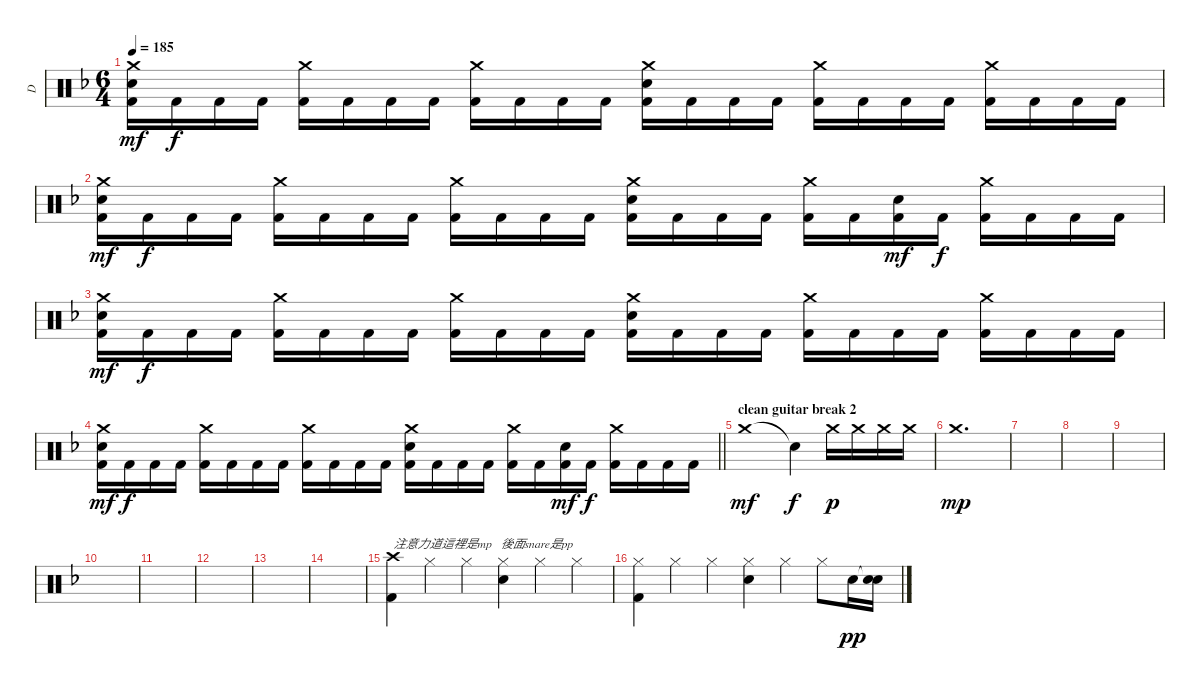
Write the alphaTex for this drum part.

\track ("D" "D") {instrument percussion}
\staff {score}
\articulation defaults
\ts (6 4)
\tempo 185
\clef neutral
\ks dminor
("Crash medium (hit)" "Snare (hit) 2" "Kick (hit) 2").16{dy mf} "Kick (hit) 2".16{dy f} "Kick (hit) 2".16 "Kick (hit) 2".16 ("Crash medium (hit)" "Kick (hit) 2").16 "Kick (hit) 2".16 "Kick (hit) 2".16 "Kick (hit) 2".16 ("Crash medium (hit)" "Kick (hit) 2").16 "Kick (hit) 2".16 "Kick (hit) 2".16 "Kick (hit) 2".16 ("Crash medium (hit)" "Snare (hit) 2" "Kick (hit) 2").16 "Kick (hit) 2".16 "Kick (hit) 2".16 "Kick (hit) 2".16 ("Crash medium (hit)" "Kick (hit) 2").16 "Kick (hit) 2".16 "Kick (hit) 2".16 "Kick (hit) 2".16 ("Crash medium (hit)" "Kick (hit) 2").16 "Kick (hit) 2".16 "Kick (hit) 2".16 "Kick (hit) 2".16 |
("Crash medium (hit)" "Snare (hit) 2" "Kick (hit) 2").16{dy mf} "Kick (hit) 2".16{dy f} "Kick (hit) 2".16 "Kick (hit) 2".16 ("Crash medium (hit)" "Kick (hit) 2").16 "Kick (hit) 2".16 "Kick (hit) 2".16 "Kick (hit) 2".16 ("Crash medium (hit)" "Kick (hit) 2").16 "Kick (hit) 2".16 "Kick (hit) 2".16 "Kick (hit) 2".16 ("Crash medium (hit)" "Snare (hit) 2" "Kick (hit) 2").16 "Kick (hit) 2".16 "Kick (hit) 2".16 "Kick (hit) 2".16 ("Crash medium (hit)" "Kick (hit) 2").16 "Kick (hit) 2".16 ("Snare (hit) 2" "Kick (hit) 2").16{dy mf} "Kick (hit) 2".16{dy f} ("Crash medium (hit)" "Kick (hit) 2").16 "Kick (hit) 2".16 "Kick (hit) 2".16 "Kick (hit) 2".16 |
("Crash medium (hit)" "Snare (hit) 2" "Kick (hit) 2").16{dy mf} "Kick (hit) 2".16{dy f} "Kick (hit) 2".16 "Kick (hit) 2".16 ("Crash medium (hit)" "Kick (hit) 2").16 "Kick (hit) 2".16 "Kick (hit) 2".16 "Kick (hit) 2".16 ("Crash medium (hit)" "Kick (hit) 2").16 "Kick (hit) 2".16 "Kick (hit) 2".16 "Kick (hit) 2".16 ("Crash medium (hit)" "Snare (hit) 2" "Kick (hit) 2").16 "Kick (hit) 2".16 "Kick (hit) 2".16 "Kick (hit) 2".16 ("Crash medium (hit)" "Kick (hit) 2").16 "Kick (hit) 2".16 "Kick (hit) 2".16 "Kick (hit) 2".16 ("Crash medium (hit)" "Kick (hit) 2").16 "Kick (hit) 2".16 "Kick (hit) 2".16 "Kick (hit) 2".16 |
\barLineRight lightlight
("Crash medium (hit)" "Snare (hit) 2" "Kick (hit) 2").16{dy mf} "Kick (hit) 2".16{dy f} "Kick (hit) 2".16 "Kick (hit) 2".16 ("Crash medium (hit)" "Kick (hit) 2").16 "Kick (hit) 2".16 "Kick (hit) 2".16 "Kick (hit) 2".16 ("Crash medium (hit)" "Kick (hit) 2").16 "Kick (hit) 2".16 "Kick (hit) 2".16 "Kick (hit) 2".16 ("Crash medium (hit)" "Snare (hit) 2" "Kick (hit) 2").16 "Kick (hit) 2".16 "Kick (hit) 2".16 "Kick (hit) 2".16 ("Crash medium (hit)" "Kick (hit) 2").16 "Kick (hit) 2".16 ("Snare (hit) 2" "Kick (hit) 2").16{dy mf} "Kick (hit) 2".16{dy f} ("Crash medium (hit)" "Kick (hit) 2").16 "Kick (hit) 2".16 "Kick (hit) 2".16 "Kick (hit) 2".16 |
\section ("" "clean guitar break 2")
"Crash medium (hit)".1{dy mf} "Snare (hit)"{t}.4{dy f} "Crash medium (hit)".16{dy p} "Crash medium (hit)".16 "Crash medium (hit)".16 "Crash medium (hit)".16 |
"Crash medium (hit)".1{d dy mp} |
|
|
|
|
|
|
|
|
("Crash high (hit)" "Kick (hit) 2").4{txt "注意力道這裡是mp   後面snare是pp"} "Hi-Hat (closed)".4 "Hi-Hat (closed)".4 ("Hi-Hat (closed)" "Snare (hit) 2").4 "Hi-Hat (closed)".4 "Hi-Hat (closed)".4 |
("Hi-Hat (closed)" "Kick (hit) 2").4 "Hi-Hat (closed)".4 "Hi-Hat (closed)".4 ("Hi-Hat (closed)" "Snare (hit) 2").4 "Hi-Hat (closed)".4 "Hi-Hat (closed)".8 "Snare (hit) 2".16{dy pp} ("Snare (hit)"{t} "Snare (hit) 2").16
